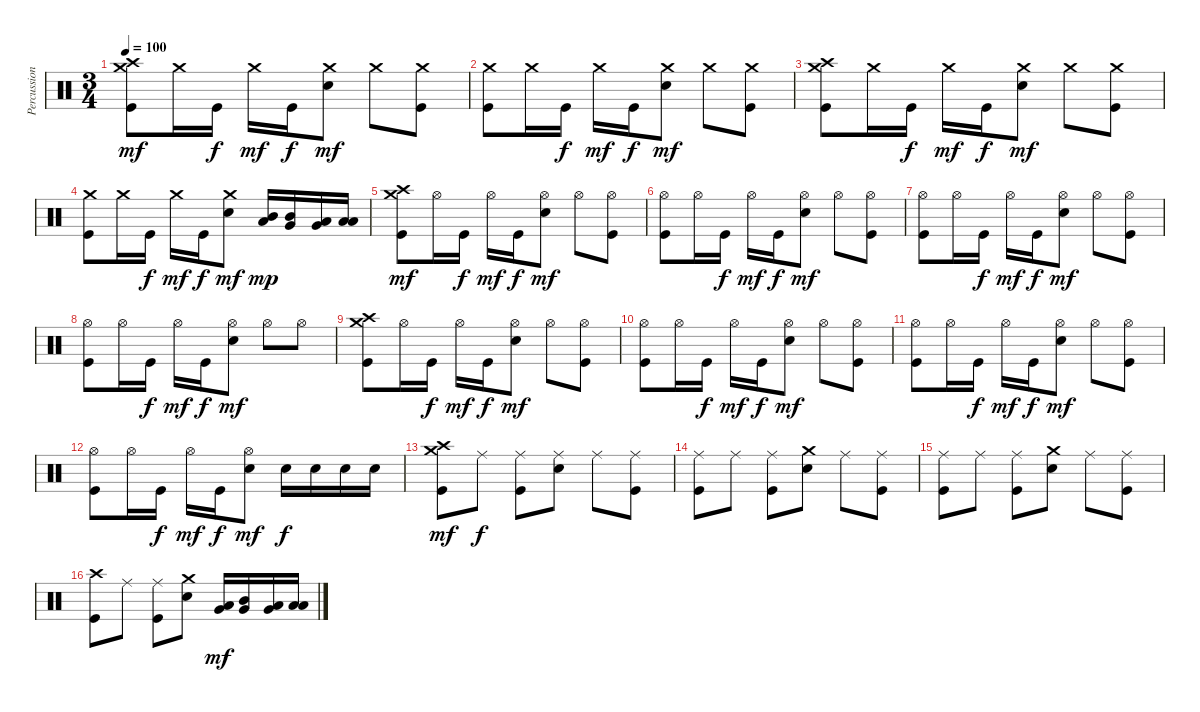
\track ("Percussions" "Percussion") {instrument percussion}
\staff {score}
\articulation defaults
\ts (3 4)
\tempo 100
\clef neutral
\ks c
("Kick (hit)" "Crash medium (hit)" "Crash high (hit)").8{dy mf} "Crash medium (hit)".16 "Kick (hit)".16{dy f} "Crash medium (hit)".16{dy mf} "Kick (hit)".16{dy f} ("Electric Snare (hit)" "Crash medium (hit)").8{dy mf} "Crash medium (hit)".8 ("Kick (hit)" "Crash medium (hit)").8 |
("Kick (hit)" "Crash medium (hit)").8 "Crash medium (hit)".16 "Kick (hit)".16{dy f} "Crash medium (hit)".16{dy mf} "Kick (hit)".16{dy f} ("Electric Snare (hit)" "Crash medium (hit)").8{dy mf} "Crash medium (hit)".8 ("Kick (hit)" "Crash medium (hit)").8 |
("Kick (hit)" "Crash medium (hit)" "Crash high (hit)").8 "Crash medium (hit)".16 "Kick (hit)".16{dy f} "Crash medium (hit)".16{dy mf} "Kick (hit)".16{dy f} ("Electric Snare (hit)" "Crash medium (hit)").8{dy mf} "Crash medium (hit)".8 ("Kick (hit)" "Crash medium (hit)").8 |
("Kick (hit)" "Crash medium (hit)").8 "Crash medium (hit)".16 "Kick (hit)".16{dy f} "Crash medium (hit)".16{dy mf} "Kick (hit)".16{dy f} ("Electric Snare (hit)" "Crash medium (hit)").8{dy mf} ("Low Tom (hit)" "Mid Tom (hit)").16{dy mp} ("Very Low Tom (hit)" "Mid Tom (hit)").16 ("Very Low Tom (hit)" "Low Tom (hit)").16 ("Low Floor Tom (hit)" "Low Tom (hit)").16 |
("Kick (hit)" "Crash medium (hit)" "Crash high (hit)").8{dy mf} "Hi-Hat (open)".16 "Kick (hit)".16{dy f} "Hi-Hat (open)".16{dy mf} "Kick (hit)".16{dy f} ("Electric Snare (hit)" "Hi-Hat (open)").8{dy mf} "Hi-Hat (open)".8 ("Kick (hit)" "Hi-Hat (open)").8 |
("Kick (hit)" "Hi-Hat (open)").8 "Hi-Hat (open)".16 "Kick (hit)".16{dy f} "Hi-Hat (open)".16{dy mf} "Kick (hit)".16{dy f} ("Electric Snare (hit)" "Hi-Hat (open)").8{dy mf} "Hi-Hat (open)".8 ("Kick (hit)" "Hi-Hat (open)").8 |
("Kick (hit)" "Hi-Hat (open)").8 "Hi-Hat (open)".16 "Kick (hit)".16{dy f} "Hi-Hat (open)".16{dy mf} "Kick (hit)".16{dy f} ("Electric Snare (hit)" "Hi-Hat (open)").8{dy mf} "Hi-Hat (open)".8 ("Kick (hit)" "Hi-Hat (open)").8 |
("Kick (hit)" "Hi-Hat (open)").8 "Hi-Hat (open)".16 "Kick (hit)".16{dy f} "Hi-Hat (open)".16{dy mf} "Kick (hit)".16{dy f} ("Electric Snare (hit)" "Hi-Hat (open)").8{dy mf} "Hi-Hat (open)".8 "Hi-Hat (open)".8 |
("Kick (hit)" "Crash medium (hit)" "Crash high (hit)").8 "Hi-Hat (open)".16 "Kick (hit)".16{dy f} "Hi-Hat (open)".16{dy mf} "Kick (hit)".16{dy f} ("Electric Snare (hit)" "Hi-Hat (open)").8{dy mf} "Hi-Hat (open)".8 ("Kick (hit)" "Hi-Hat (open)").8 |
("Kick (hit)" "Hi-Hat (open)").8 "Hi-Hat (open)".16 "Kick (hit)".16{dy f} "Hi-Hat (open)".16{dy mf} "Kick (hit)".16{dy f} ("Electric Snare (hit)" "Hi-Hat (open)").8{dy mf} "Hi-Hat (open)".8 ("Kick (hit)" "Hi-Hat (open)").8 |
("Kick (hit)" "Hi-Hat (open)").8 "Hi-Hat (open)".16 "Kick (hit)".16{dy f} "Hi-Hat (open)".16{dy mf} "Kick (hit)".16{dy f} ("Electric Snare (hit)" "Hi-Hat (open)").8{dy mf} "Hi-Hat (open)".8 ("Kick (hit)" "Hi-Hat (open)").8 |
("Kick (hit)" "Hi-Hat (open)").8 "Hi-Hat (open)".16 "Kick (hit)".16{dy f} "Hi-Hat (open)".16{dy mf} "Kick (hit)".16{dy f} ("Electric Snare (hit)" "Hi-Hat (open)").8{dy mf} "Electric Snare (hit)".16{dy f} "Electric Snare (hit)".16 "Electric Snare (hit)".16 "Electric Snare (hit)".16 |
("Kick (hit)" "Crash medium (hit)" "Crash high (hit)").8{dy mf} "Ride (middle)".8{dy f} ("Kick (hit)" "Ride (middle)").8 ("Electric Snare (hit)" "Ride (middle)").8 "Ride (middle)".8 ("Kick (hit)" "Ride (middle)").8 |
("Kick (hit)" "Ride (middle)").8 "Ride (middle)".8 ("Kick (hit)" "Ride (middle)").8 ("Electric Snare (hit)" "Crash medium (hit)").8 "Ride (middle)".8 ("Kick (hit)" "Ride (middle)").8 |
("Kick (hit)" "Ride (middle)").8 "Ride (middle)".8 ("Kick (hit)" "Ride (middle)").8 ("Electric Snare (hit)" "Crash medium (hit)").8 "Ride (middle)".8 ("Kick (hit)" "Ride (middle)").8 |
("Kick (hit)" "Crash high (hit)").8 "Ride (middle)".8 ("Kick (hit)" "Ride (middle)").8 ("Electric Snare (hit)" "Crash medium (hit)").8 ("Very Low Tom (hit)" "Low Tom (hit)").16{dy mf} ("Very Low Tom (hit)" "Mid Tom (hit)").16 ("Low Floor Tom (hit)" "Very Low Tom (hit)").16 ("Low Floor Tom (hit)" "Low Tom (hit)").16
